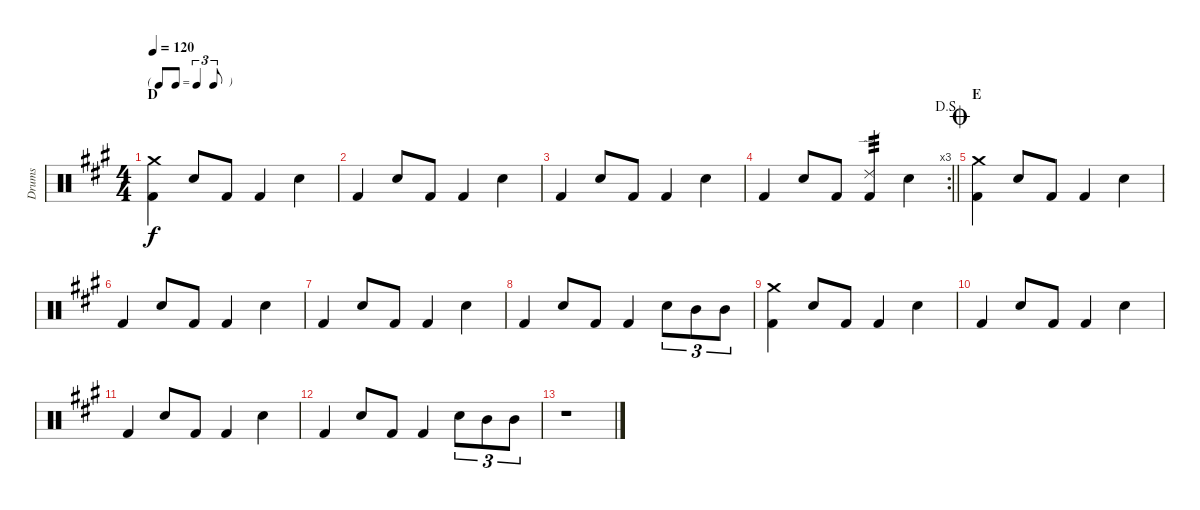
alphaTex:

\track ("Drums" "Drums") {instrument percussion}
\staff {score}
\articulation defaults
\ts (4 4)
\tf triplet8th
\section ("" "D")
\tempo 120
\clef neutral
\ks a
("Crash medium (hit)" "Kick (hit) 2").4{dy f} "Snare (hit) 2".8 "Kick (hit) 2".8 "Kick (hit) 2".4 "Snare (hit) 2".4 |
"Kick (hit) 2".4 "Snare (hit) 2".8 "Kick (hit) 2".8 "Kick (hit) 2".4 "Snare (hit) 2".4 |
"Kick (hit) 2".4 "Snare (hit) 2".8 "Kick (hit) 2".8 "Kick (hit) 2".4 "Snare (hit) 2".4 |
\rc 3
\jump dalsegno
\barLineRight lightlight "Kick (hit) 2".4 "Snare (hit) 2".8 "Kick (hit) 2".8
("Ride (edge) 2" "Kick (hit) 2").4{tp 3} "Snare (hit) 2".4 |
\section ("" "E")
\jump coda
("Crash medium (hit)" "Kick (hit) 2").4 "Snare (hit) 2".8 "Kick (hit) 2".8 "Kick (hit) 2".4 "Snare (hit) 2".4 |
"Kick (hit) 2".4 "Snare (hit) 2".8 "Kick (hit) 2".8 "Kick (hit) 2".4 "Snare (hit) 2".4 |
"Kick (hit) 2".4 "Snare (hit) 2".8 "Kick (hit) 2".8 "Kick (hit) 2".4 "Snare (hit) 2".4 |
"Kick (hit) 2".4 "Snare (hit) 2".8 "Kick (hit) 2".8 "Kick (hit) 2".4 "Snare (hit) 2".8{tu (3 2)} "Mid Tom (hit)".8{tu (3 2)} "Mid Tom (hit)".8{tu (3 2)} |
("Crash medium (hit)" "Kick (hit) 2").4 "Snare (hit) 2".8 "Kick (hit) 2".8 "Kick (hit) 2".4 "Snare (hit) 2".4 |
"Kick (hit) 2".4 "Snare (hit) 2".8 "Kick (hit) 2".8 "Kick (hit) 2".4 "Snare (hit) 2".4 |
"Kick (hit) 2".4 "Snare (hit) 2".8 "Kick (hit) 2".8 "Kick (hit) 2".4 "Snare (hit) 2".4 |
"Kick (hit) 2".4 "Snare (hit) 2".8 "Kick (hit) 2".8 "Kick (hit) 2".4 "Snare (hit) 2".8{tu (3 2)} "Mid Tom (hit)".8{tu (3 2)} "Mid Tom (hit)".8{tu (3 2)} |
r.1
